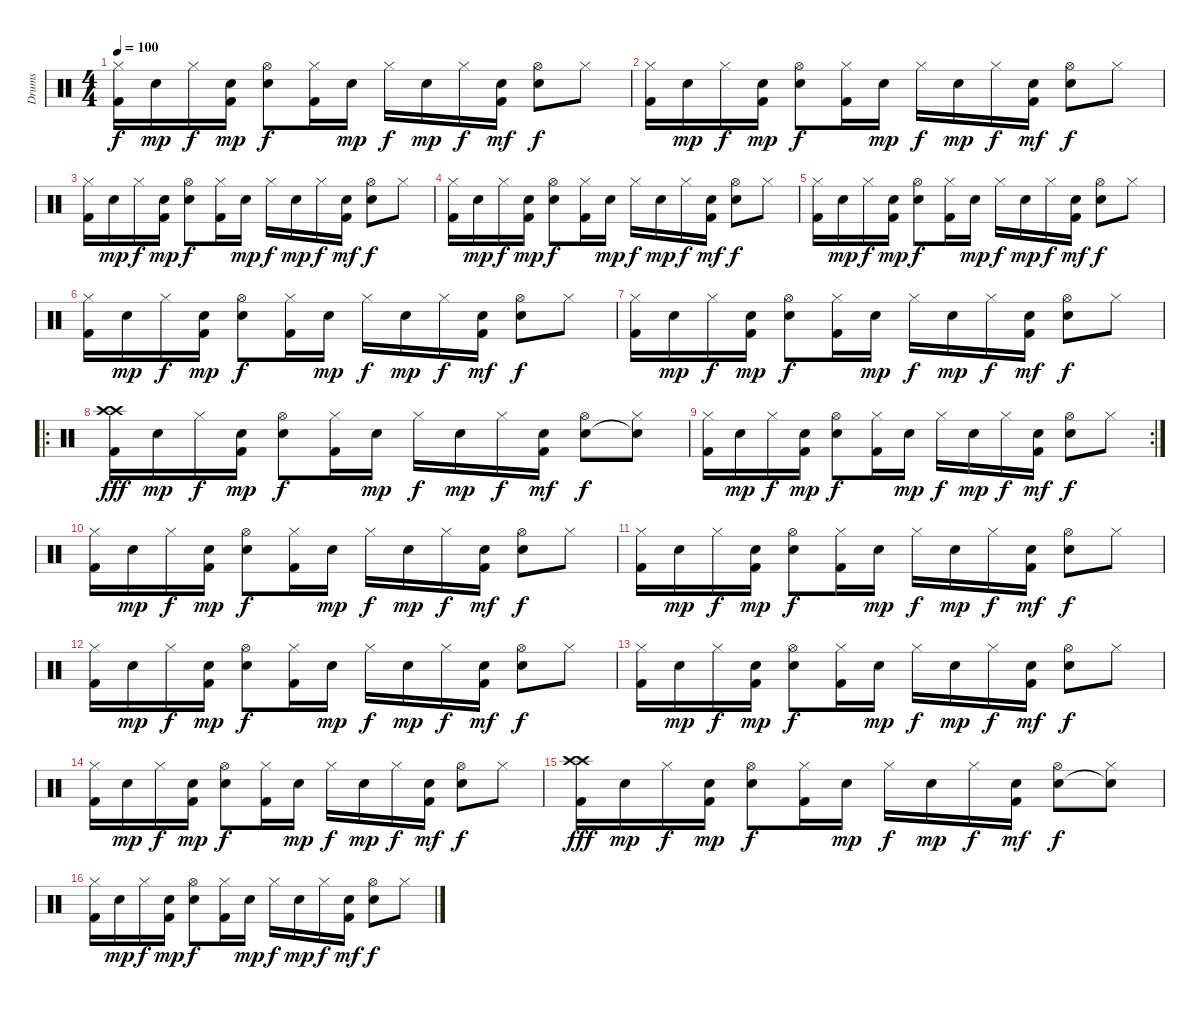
\track ("Drums" "Drums") {instrument percussion}
\staff {score}
\articulation defaults
\ts (4 4)
\tempo 100
\clef neutral
\ks c
("Hi-Hat (closed)" "Kick (hit) 2").16{dy f} "Snare (hit) 2".16{dy mp} "Hi-Hat (closed)".16{dy f} ("Snare (hit) 2" "Kick (hit) 2").16{dy mp} ("Hi-Hat (open)" "Snare (hit) 2").8{dy f} ("Hi-Hat (closed)" "Kick (hit) 2").16 "Snare (hit) 2".16{dy mp} "Hi-Hat (closed)".16{dy f} "Snare (hit) 2".16{dy mp} "Hi-Hat (closed)".16{dy f} ("Snare (hit) 2" "Kick (hit) 2").16{dy mf} ("Hi-Hat (open)" "Snare (hit) 2").8{dy f} "Hi-Hat (closed)".8 |
("Hi-Hat (closed)" "Kick (hit) 2").16 "Snare (hit) 2".16{dy mp} "Hi-Hat (closed)".16{dy f} ("Snare (hit) 2" "Kick (hit) 2").16{dy mp} ("Hi-Hat (open)" "Snare (hit) 2").8{dy f} ("Hi-Hat (closed)" "Kick (hit) 2").16 "Snare (hit) 2".16{dy mp} "Hi-Hat (closed)".16{dy f} "Snare (hit) 2".16{dy mp} "Hi-Hat (closed)".16{dy f} ("Snare (hit) 2" "Kick (hit) 2").16{dy mf} ("Hi-Hat (open)" "Snare (hit) 2").8{dy f} "Hi-Hat (closed)".8 |
("Hi-Hat (closed)" "Kick (hit) 2").16 "Snare (hit) 2".16{dy mp} "Hi-Hat (closed)".16{dy f} ("Snare (hit) 2" "Kick (hit) 2").16{dy mp} ("Hi-Hat (open)" "Snare (hit) 2").8{dy f} ("Hi-Hat (closed)" "Kick (hit) 2").16 "Snare (hit) 2".16{dy mp} "Hi-Hat (closed)".16{dy f} "Snare (hit) 2".16{dy mp} "Hi-Hat (closed)".16{dy f} ("Snare (hit) 2" "Kick (hit) 2").16{dy mf} ("Hi-Hat (open)" "Snare (hit) 2").8{dy f} "Hi-Hat (closed)".8 |
("Hi-Hat (closed)" "Kick (hit) 2").16 "Snare (hit) 2".16{dy mp} "Hi-Hat (closed)".16{dy f} ("Snare (hit) 2" "Kick (hit) 2").16{dy mp} ("Hi-Hat (open)" "Snare (hit) 2").8{dy f} ("Hi-Hat (closed)" "Kick (hit) 2").16 "Snare (hit) 2".16{dy mp} "Hi-Hat (closed)".16{dy f} "Snare (hit) 2".16{dy mp} "Hi-Hat (closed)".16{dy f} ("Snare (hit) 2" "Kick (hit) 2").16{dy mf} ("Hi-Hat (open)" "Snare (hit) 2").8{dy f} "Hi-Hat (closed)".8 |
("Hi-Hat (closed)" "Kick (hit) 2").16 "Snare (hit) 2".16{dy mp} "Hi-Hat (closed)".16{dy f} ("Snare (hit) 2" "Kick (hit) 2").16{dy mp} ("Hi-Hat (open)" "Snare (hit) 2").8{dy f} ("Hi-Hat (closed)" "Kick (hit) 2").16 "Snare (hit) 2".16{dy mp} "Hi-Hat (closed)".16{dy f} "Snare (hit) 2".16{dy mp} "Hi-Hat (closed)".16{dy f} ("Snare (hit) 2" "Kick (hit) 2").16{dy mf} ("Hi-Hat (open)" "Snare (hit) 2").8{dy f} "Hi-Hat (closed)".8 |
("Hi-Hat (closed)" "Kick (hit) 2").16 "Snare (hit) 2".16{dy mp} "Hi-Hat (closed)".16{dy f} ("Snare (hit) 2" "Kick (hit) 2").16{dy mp} ("Hi-Hat (open)" "Snare (hit) 2").8{dy f} ("Hi-Hat (closed)" "Kick (hit) 2").16 "Snare (hit) 2".16{dy mp} "Hi-Hat (closed)".16{dy f} "Snare (hit) 2".16{dy mp} "Hi-Hat (closed)".16{dy f} ("Snare (hit) 2" "Kick (hit) 2").16{dy mf} ("Hi-Hat (open)" "Snare (hit) 2").8{dy f} "Hi-Hat (closed)".8 |
("Hi-Hat (closed)" "Kick (hit) 2").16 "Snare (hit) 2".16{dy mp} "Hi-Hat (closed)".16{dy f} ("Snare (hit) 2" "Kick (hit) 2").16{dy mp} ("Hi-Hat (open)" "Snare (hit) 2").8{dy f} ("Hi-Hat (closed)" "Kick (hit) 2").16 "Snare (hit) 2".16{dy mp} "Hi-Hat (closed)".16{dy f} "Snare (hit) 2".16{dy mp} "Hi-Hat (closed)".16{dy f} ("Snare (hit) 2" "Kick (hit) 2").16{dy mf} ("Hi-Hat (open)" "Snare (hit) 2").8{dy f} "Hi-Hat (closed)".8 |
\ro
("Crash high (hit)" "Crash high (hit)" "Kick (hit) 2").16{dy fff} "Snare (hit) 2".16{dy mp} "Hi-Hat (closed)".16{dy f} ("Snare (hit) 2" "Kick (hit) 2").16{dy mp} ("Hi-Hat (open)" "Snare (hit) 2").8{dy f} ("Hi-Hat (closed)" "Kick (hit) 2").16 "Snare (hit) 2".16{dy mp} "Hi-Hat (closed)".16{dy f} "Snare (hit) 2".16{dy mp} "Hi-Hat (closed)".16{dy f} ("Snare (hit) 2" "Kick (hit) 2").16{dy mf} ("Hi-Hat (open)" "Snare (hit) 2").8{dy f} ("Hi-Hat (closed)" "Snare (hit)"{t}).8 |
\rc 2
("Hi-Hat (closed)" "Kick (hit) 2").16 "Snare (hit) 2".16{dy mp} "Hi-Hat (closed)".16{dy f} ("Snare (hit) 2" "Kick (hit) 2").16{dy mp} ("Hi-Hat (open)" "Snare (hit) 2").8{dy f} ("Hi-Hat (closed)" "Kick (hit) 2").16 "Snare (hit) 2".16{dy mp} "Hi-Hat (closed)".16{dy f} "Snare (hit) 2".16{dy mp} "Hi-Hat (closed)".16{dy f} ("Snare (hit) 2" "Kick (hit) 2").16{dy mf} ("Hi-Hat (open)" "Snare (hit) 2").8{dy f} "Hi-Hat (closed)".8 |
("Hi-Hat (closed)" "Kick (hit) 2").16 "Snare (hit) 2".16{dy mp} "Hi-Hat (closed)".16{dy f} ("Snare (hit) 2" "Kick (hit) 2").16{dy mp} ("Hi-Hat (open)" "Snare (hit) 2").8{dy f} ("Hi-Hat (closed)" "Kick (hit) 2").16 "Snare (hit) 2".16{dy mp} "Hi-Hat (closed)".16{dy f} "Snare (hit) 2".16{dy mp} "Hi-Hat (closed)".16{dy f} ("Snare (hit) 2" "Kick (hit) 2").16{dy mf} ("Hi-Hat (open)" "Snare (hit) 2").8{dy f} "Hi-Hat (closed)".8 |
("Hi-Hat (closed)" "Kick (hit) 2").16 "Snare (hit) 2".16{dy mp} "Hi-Hat (closed)".16{dy f} ("Snare (hit) 2" "Kick (hit) 2").16{dy mp} ("Hi-Hat (open)" "Snare (hit) 2").8{dy f} ("Hi-Hat (closed)" "Kick (hit) 2").16 "Snare (hit) 2".16{dy mp} "Hi-Hat (closed)".16{dy f} "Snare (hit) 2".16{dy mp} "Hi-Hat (closed)".16{dy f} ("Snare (hit) 2" "Kick (hit) 2").16{dy mf} ("Hi-Hat (open)" "Snare (hit) 2").8{dy f} "Hi-Hat (closed)".8 |
("Hi-Hat (closed)" "Kick (hit) 2").16 "Snare (hit) 2".16{dy mp} "Hi-Hat (closed)".16{dy f} ("Snare (hit) 2" "Kick (hit) 2").16{dy mp} ("Hi-Hat (open)" "Snare (hit) 2").8{dy f} ("Hi-Hat (closed)" "Kick (hit) 2").16 "Snare (hit) 2".16{dy mp} "Hi-Hat (closed)".16{dy f} "Snare (hit) 2".16{dy mp} "Hi-Hat (closed)".16{dy f} ("Snare (hit) 2" "Kick (hit) 2").16{dy mf} ("Hi-Hat (open)" "Snare (hit) 2").8{dy f} "Hi-Hat (closed)".8 |
("Hi-Hat (closed)" "Kick (hit) 2").16 "Snare (hit) 2".16{dy mp} "Hi-Hat (closed)".16{dy f} ("Snare (hit) 2" "Kick (hit) 2").16{dy mp} ("Hi-Hat (open)" "Snare (hit) 2").8{dy f} ("Hi-Hat (closed)" "Kick (hit) 2").16 "Snare (hit) 2".16{dy mp} "Hi-Hat (closed)".16{dy f} "Snare (hit) 2".16{dy mp} "Hi-Hat (closed)".16{dy f} ("Snare (hit) 2" "Kick (hit) 2").16{dy mf} ("Hi-Hat (open)" "Snare (hit) 2").8{dy f} "Hi-Hat (closed)".8 |
("Hi-Hat (closed)" "Kick (hit) 2").16 "Snare (hit) 2".16{dy mp} "Hi-Hat (closed)".16{dy f} ("Snare (hit) 2" "Kick (hit) 2").16{dy mp} ("Hi-Hat (open)" "Snare (hit) 2").8{dy f} ("Hi-Hat (closed)" "Kick (hit) 2").16 "Snare (hit) 2".16{dy mp} "Hi-Hat (closed)".16{dy f} "Snare (hit) 2".16{dy mp} "Hi-Hat (closed)".16{dy f} ("Snare (hit) 2" "Kick (hit) 2").16{dy mf} ("Hi-Hat (open)" "Snare (hit) 2").8{dy f} "Hi-Hat (closed)".8 |
("Crash high (hit)" "Crash high (hit)" "Kick (hit) 2").16{dy fff} "Snare (hit) 2".16{dy mp} "Hi-Hat (closed)".16{dy f} ("Snare (hit) 2" "Kick (hit) 2").16{dy mp} ("Hi-Hat (open)" "Snare (hit) 2").8{dy f} ("Hi-Hat (closed)" "Kick (hit) 2").16 "Snare (hit) 2".16{dy mp} "Hi-Hat (closed)".16{dy f} "Snare (hit) 2".16{dy mp} "Hi-Hat (closed)".16{dy f} ("Snare (hit) 2" "Kick (hit) 2").16{dy mf} ("Hi-Hat (open)" "Snare (hit) 2").8{dy f} ("Hi-Hat (closed)" "Snare (hit)"{t}).8 |
("Hi-Hat (closed)" "Kick (hit) 2").16 "Snare (hit) 2".16{dy mp} "Hi-Hat (closed)".16{dy f} ("Snare (hit) 2" "Kick (hit) 2").16{dy mp} ("Hi-Hat (open)" "Snare (hit) 2").8{dy f} ("Hi-Hat (closed)" "Kick (hit) 2").16 "Snare (hit) 2".16{dy mp} "Hi-Hat (closed)".16{dy f} "Snare (hit) 2".16{dy mp} "Hi-Hat (closed)".16{dy f} ("Snare (hit) 2" "Kick (hit) 2").16{dy mf} ("Hi-Hat (open)" "Snare (hit) 2").8{dy f} "Hi-Hat (closed)".8
